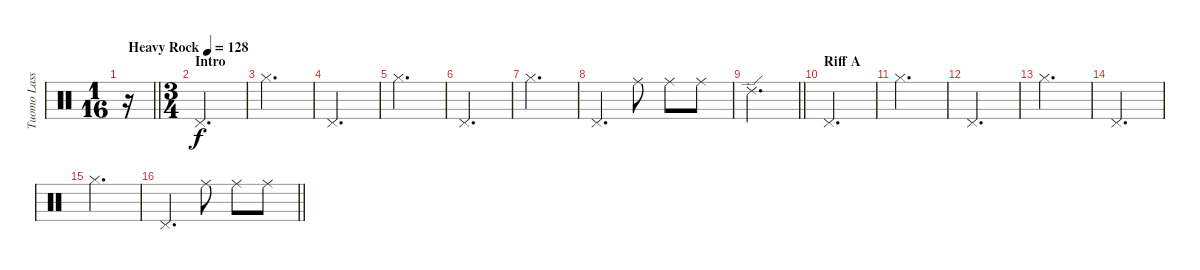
\track ("Tuomo Lassila" "Tuomo Lass") {instrument percussion}
\staff {score}
\articulation defaults
\ts (1 16)
\tempo (128 "Heavy Rock")
\clef neutral
\barLineRight lightlight
\ks c
r.16{dy f} |
\ts (3 4)
\section ("" "Intro")
"Pedal Hi-Hat (hit)".2{d} |
"Hi-Hat (closed)".2{d} |
"Pedal Hi-Hat (hit)".2{d} |
"Hi-Hat (closed)".2{d} |
"Pedal Hi-Hat (hit)".2{d} |
"Hi-Hat (closed)".2{d} |
"Pedal Hi-Hat (hit)".4{d} "Ride (middle)".8 "Ride (middle)".8 "Ride (middle)".8 |
\barLineRight lightlight "Ride (edge) 2".2{d}
|
\section ("" "Riff A")
"Pedal Hi-Hat (hit)".2{d} |
"Hi-Hat (closed)".2{d} |
"Pedal Hi-Hat (hit)".2{d} |
"Hi-Hat (closed)".2{d} |
"Pedal Hi-Hat (hit)".2{d} |
"Hi-Hat (closed)".2{d} |
\barLineRight lightlight "Pedal Hi-Hat (hit)".4{d} "Ride (middle)".8 "Ride (middle)".8 "Ride (middle)".8
